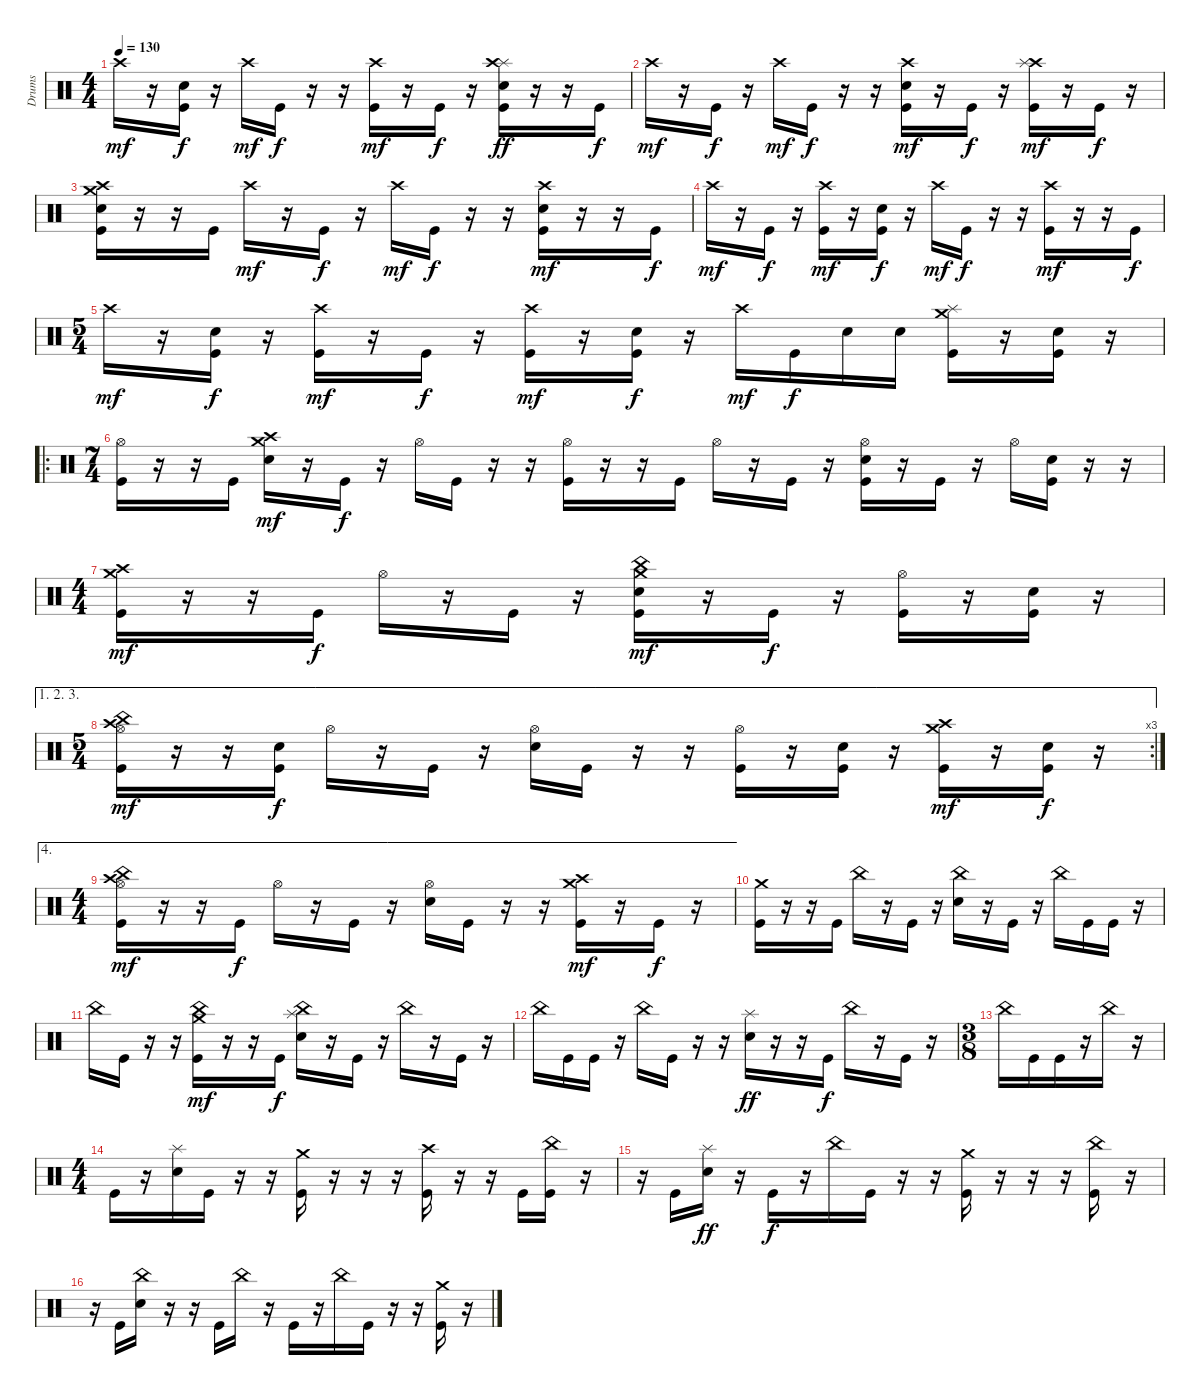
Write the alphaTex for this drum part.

\track ("Drums" "Drums") {instrument percussion}
\staff {score}
\articulation defaults
\ts (4 4)
\tempo 130
\clef neutral
\ks c "Crash high (hit)".16{dy mf}
r.16 ("Electric Snare (hit)" "Kick (hit)").16{dy f} r.16 "Crash high (hit)".16{dy mf} "Kick (hit)".16{dy f} r.16 r.16 ("Crash high (hit)" "Kick (hit)").16{dy mf} r.16 "Kick (hit)".16{dy f} r.16 ("Splash (hit)" "Crash high (hit)" "Electric Snare (hit)" "Kick (hit)").16{dy ff} r.16 r.16 "Kick (hit)".16{dy f} |
"Crash high (hit)".16{dy mf} r.16 "Kick (hit)".16{dy f} r.16 "Crash high (hit)".16{dy mf} "Kick (hit)".16{dy f} r.16 r.16 ("Crash high (hit)" "Electric Snare (hit)" "Kick (hit)").16{dy mf} r.16 "Kick (hit)".16{dy f} r.16 ("Crash high (hit)" "Splash (hit)" "Kick (hit)").16{dy mf} r.16 "Kick (hit)".16{dy f} r.16 |
("Crash high (hit)" "Crash medium (hit)" "Electric Snare (hit)" "Kick (hit)").16 r.16 r.16 "Kick (hit)".16 "Crash high (hit)".16{dy mf} r.16 "Kick (hit)".16{dy f} r.16 "Crash high (hit)".16{dy mf} "Kick (hit)".16{dy f} r.16 r.16 ("Crash high (hit)" "Electric Snare (hit)" "Kick (hit)").16{dy mf} r.16 r.16 "Kick (hit)".16{dy f} |
"Crash high (hit)".16{dy mf} r.16 "Kick (hit)".16{dy f} r.16 ("Crash high (hit)" "Kick (hit)").16{dy mf} r.16 ("Electric Snare (hit)" "Kick (hit)").16{dy f} r.16 "Crash high (hit)".16{dy mf} "Kick (hit)".16{dy f} r.16 r.16 ("Crash high (hit)" "Kick (hit)").16{dy mf} r.16 r.16 "Kick (hit)".16{dy f} |
\ts (5 4)
"Crash high (hit)".16{dy mf} r.16 ("Electric Snare (hit)" "Kick (hit)").16{dy f} r.16 ("Crash high (hit)" "Kick (hit)").16{dy mf} r.16 "Kick (hit)".16{dy f} r.16 ("Crash high (hit)" "Kick (hit)").16{dy mf} r.16 ("Electric Snare (hit)" "Kick (hit)").16{dy f} r.16 "Crash high (hit)".16{dy mf} "Kick (hit)".16{dy f} "Electric Snare (hit)".16 "Electric Snare (hit)".16 ("Crash medium (hit)" "Splash (hit)" "Kick (hit)").16 r.16 ("Electric Snare (hit)" "Kick (hit)").16 r.16 |
\ro
\ts (7 4)
("Hi-Hat (open)" "Kick (hit)").16 r.16 r.16 "Kick (hit)".16 ("Crash high (hit)" "Crash medium (hit)" "Electric Snare (hit)").16{dy mf} r.16 "Kick (hit)".16{dy f} r.16 "Hi-Hat (open)".16 "Kick (hit)".16 r.16 r.16 ("Hi-Hat (open)" "Kick (hit)").16 r.16 r.16 "Kick (hit)".16 "Hi-Hat (open)".16 r.16 "Kick (hit)".16 r.16 ("Hi-Hat (open)" "Electric Snare (hit)" "Kick (hit)").16 r.16 "Kick (hit)".16 r.16 "Hi-Hat (open)".16 ("Electric Snare (hit)" "Kick (hit)").16 r.16 r.16 |
\ts (4 4)
("Crash medium (hit)" "Crash high (hit)" "Kick (hit)").16{dy mf} r.16 r.16 "Kick (hit)".16{dy f} "Hi-Hat (open)".16 r.16 "Kick (hit)".16 r.16 ("China (hit)" "Crash medium (hit)" "Electric Snare (hit)" "Kick (hit)").16{dy mf} r.16 "Kick (hit)".16{dy f} r.16 ("Hi-Hat (open)" "Kick (hit)").16 r.16 ("Electric Snare (hit)" "Kick (hit)").16 r.16 |
\ae (1 2 3)
\rc 3
\ts (5 4)
("China (hit)" "Crash high (hit)" "Hi-Hat (open)" "Kick (hit)").16{dy mf} r.16 r.16 ("Electric Snare (hit)" "Kick (hit)").16{dy f} "Hi-Hat (open)".16 r.16 "Kick (hit)".16 r.16 ("Hi-Hat (open)" "Electric Snare (hit)").16 "Kick (hit)".16 r.16 r.16 ("Hi-Hat (open)" "Kick (hit)").16 r.16 ("Electric Snare (hit)" "Kick (hit)").16 r.16 ("Crash medium (hit)" "Crash high (hit)" "Kick (hit)").16{dy mf} r.16 ("Electric Snare (hit)" "Kick (hit)").16{dy f} r.16 |
\ae 4
\ts (4 4)
("China (hit)" "Crash high (hit)" "Hi-Hat (open)" "Kick (hit)").16{dy mf} r.16 r.16 "Kick (hit)".16{dy f} "Hi-Hat (open)".16 r.16 "Kick (hit)".16 r.16 ("Hi-Hat (open)" "Electric Snare (hit)").16 "Kick (hit)".16 r.16 r.16 ("Crash medium (hit)" "Crash high (hit)" "Kick (hit)").16{dy mf} r.16 "Kick (hit)".16{dy f} r.16 |
("Crash medium (hit)" "Kick (hit)").16 r.16 r.16 "Kick (hit)".16 "China (hit)".16 r.16 "Kick (hit)".16 r.16 ("China (hit)" "Electric Snare (hit)").16 r.16 "Kick (hit)".16 r.16 "China (hit)".16 "Kick (hit)".16 "Kick (hit)".16 r.16 |
"China (hit)".16 "Kick (hit)".16 r.16 r.16 ("Crash medium (hit)" "China (hit)" "Kick (hit)").16{dy mf} r.16 r.16 "Kick (hit)".16{dy f} ("China (hit)" "Splash (hit)" "Electric Snare (hit)").16 r.16 "Kick (hit)".16 r.16 "China (hit)".16 r.16 "Kick (hit)".16 r.16 |
"China (hit)".16 "Kick (hit)".16 "Kick (hit)".16 r.16 "China (hit)".16 "Kick (hit)".16 r.16 r.16 ("Splash (hit)" "Electric Snare (hit)").16{dy ff} r.16 r.16 "Kick (hit)".16{dy f} "China (hit)".16 r.16 "Kick (hit)".16 r.16 |
\ts (3 8)
"China (hit)".16 "Kick (hit)".16 "Kick (hit)".16 r.16 "China (hit)".16 r.16 |
\ts (4 4)
"Kick (hit)".16 r.16 ("Splash (hit)" "Electric Snare (hit)").16 "Kick (hit)".16 r.16 r.16 ("Crash medium (hit)" "Kick (hit)").16 r.16 r.16 r.16 ("Crash high (hit)" "Kick (hit)").16 r.16 r.16 "Kick (hit)".16 ("China (hit)" "Kick (hit)").16 r.16 |
r.16 "Kick (hit)".16 ("Splash (hit)" "Electric Snare (hit)").16{dy ff} r.16 "Kick (hit)".16{dy f} r.16 "China (hit)".16 "Kick (hit)".16 r.16 r.16 ("Crash medium (hit)" "Kick (hit)").16 r.16 r.16 r.16 ("China (hit)" "Kick (hit)").16 r.16 |
r.16 "Kick (hit)".16 ("China (hit)" "Electric Snare (hit)").16 r.16 r.16 "Kick (hit)".16 "China (hit)".16 r.16 "Kick (hit)".16 r.16 "China (hit)".16 "Kick (hit)".16 r.16 r.16 ("Crash medium (hit)" "Kick (hit)").16 r.16
